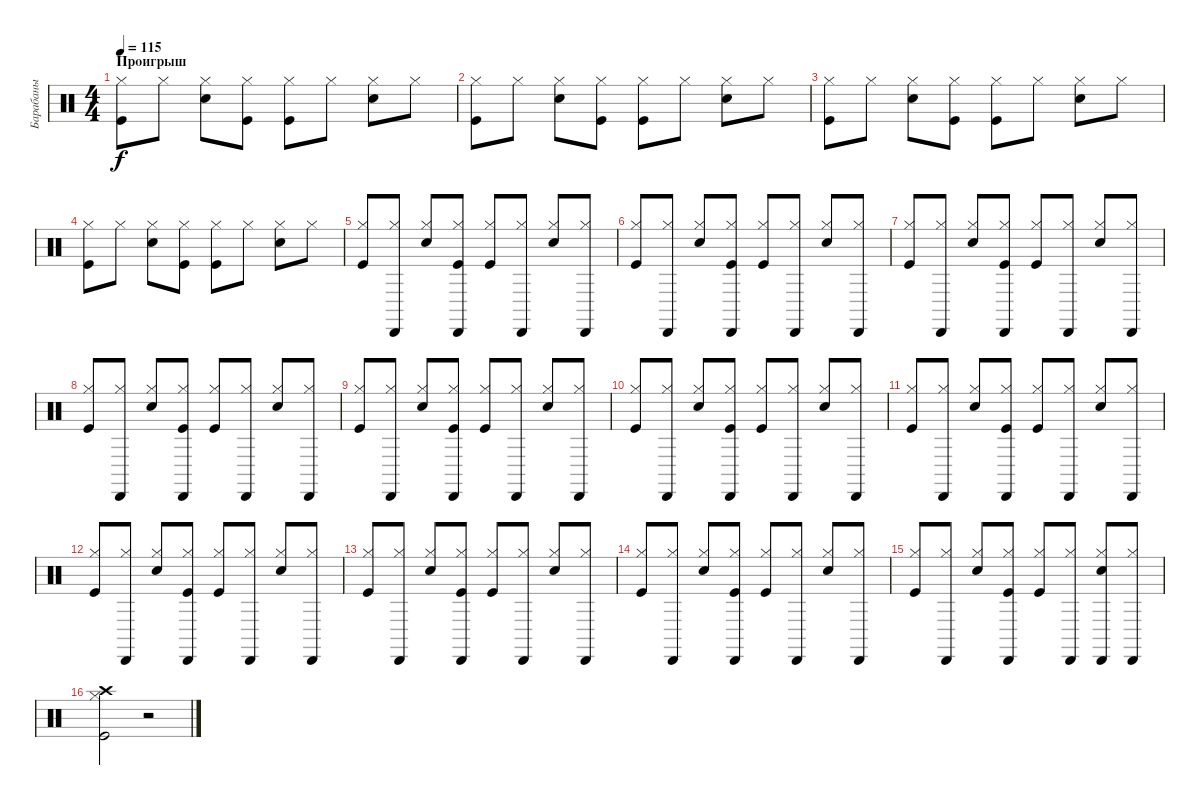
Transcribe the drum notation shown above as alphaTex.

\track ("Барабаны" "Барабаны") {instrument percussion}
\staff {score}
\articulation defaults
\ts (4 4)
\section ("" "Проигрыш")
\tempo 115
\clef neutral
\ks c
("Kick (hit)" "Hi-Hat (closed)").8{dy f} "Hi-Hat (closed)".8 ("Snare (hit) 2" "Hi-Hat (closed)").8 ("Kick (hit)" "Hi-Hat (closed)").8 ("Kick (hit)" "Hi-Hat (closed)").8 "Hi-Hat (closed)".8 ("Snare (hit) 2" "Hi-Hat (closed)").8 "Hi-Hat (closed)".8 |
("Kick (hit)" "Hi-Hat (closed)").8 "Hi-Hat (closed)".8 ("Snare (hit) 2" "Hi-Hat (closed)").8 ("Kick (hit)" "Hi-Hat (closed)").8 ("Kick (hit)" "Hi-Hat (closed)").8 "Hi-Hat (closed)".8 ("Snare (hit) 2" "Hi-Hat (closed)").8 "Hi-Hat (closed)".8 |
("Kick (hit)" "Hi-Hat (closed)").8 "Hi-Hat (closed)".8 ("Snare (hit) 2" "Hi-Hat (closed)").8 ("Kick (hit)" "Hi-Hat (closed)").8 ("Kick (hit)" "Hi-Hat (closed)").8 "Hi-Hat (closed)".8 ("Snare (hit) 2" "Hi-Hat (closed)").8 "Hi-Hat (closed)".8 |
("Kick (hit)" "Hi-Hat (closed)").8 "Hi-Hat (closed)".8 ("Snare (hit) 2" "Hi-Hat (closed)").8 ("Kick (hit)" "Hi-Hat (closed)").8 ("Kick (hit)" "Hi-Hat (closed)").8 "Hi-Hat (closed)".8 ("Snare (hit) 2" "Hi-Hat (closed)").8 "Hi-Hat (closed)".8 |
("Kick (hit)" "Hi-Hat (closed)").8 ("Hi-Hat (closed)" "Cabasa (hit)").8 ("Snare (hit) 2" "Hi-Hat (closed)").8 ("Kick (hit)" "Hi-Hat (closed)" "Cabasa (hit)").8 ("Kick (hit)" "Hi-Hat (closed)").8 ("Hi-Hat (closed)" "Cabasa (hit)").8 ("Snare (hit) 2" "Hi-Hat (closed)").8 ("Hi-Hat (closed)" "Cabasa (hit)").8 |
("Kick (hit)" "Hi-Hat (closed)").8 ("Hi-Hat (closed)" "Cabasa (hit)").8 ("Snare (hit) 2" "Hi-Hat (closed)").8 ("Kick (hit)" "Hi-Hat (closed)" "Cabasa (hit)").8 ("Kick (hit)" "Hi-Hat (closed)").8 ("Hi-Hat (closed)" "Cabasa (hit)").8 ("Snare (hit) 2" "Hi-Hat (closed)").8 ("Hi-Hat (closed)" "Cabasa (hit)").8 |
("Kick (hit)" "Hi-Hat (closed)").8 ("Hi-Hat (closed)" "Cabasa (hit)").8 ("Snare (hit) 2" "Hi-Hat (closed)").8 ("Kick (hit)" "Hi-Hat (closed)" "Cabasa (hit)").8 ("Kick (hit)" "Hi-Hat (closed)").8 ("Hi-Hat (closed)" "Cabasa (hit)").8 ("Snare (hit) 2" "Hi-Hat (closed)").8 ("Hi-Hat (closed)" "Cabasa (hit)").8 |
("Kick (hit)" "Hi-Hat (closed)").8 ("Hi-Hat (closed)" "Cabasa (hit)").8 ("Snare (hit) 2" "Hi-Hat (closed)").8 ("Kick (hit)" "Hi-Hat (closed)" "Cabasa (hit)").8 ("Kick (hit)" "Hi-Hat (closed)").8 ("Hi-Hat (closed)" "Cabasa (hit)").8 ("Snare (hit) 2" "Hi-Hat (closed)").8 ("Hi-Hat (closed)" "Cabasa (hit)").8 |
("Kick (hit)" "Hi-Hat (closed)").8 ("Hi-Hat (closed)" "Cabasa (hit)").8 ("Snare (hit) 2" "Hi-Hat (closed)").8 ("Kick (hit)" "Hi-Hat (closed)" "Cabasa (hit)").8 ("Kick (hit)" "Hi-Hat (closed)").8 ("Hi-Hat (closed)" "Cabasa (hit)").8 ("Snare (hit) 2" "Hi-Hat (closed)").8 ("Hi-Hat (closed)" "Cabasa (hit)").8 |
("Kick (hit)" "Hi-Hat (closed)").8 ("Hi-Hat (closed)" "Cabasa (hit)").8 ("Snare (hit) 2" "Hi-Hat (closed)").8 ("Kick (hit)" "Hi-Hat (closed)" "Cabasa (hit)").8 ("Kick (hit)" "Hi-Hat (closed)").8 ("Hi-Hat (closed)" "Cabasa (hit)").8 ("Snare (hit) 2" "Hi-Hat (closed)").8 ("Hi-Hat (closed)" "Cabasa (hit)").8 |
("Kick (hit)" "Hi-Hat (closed)").8 ("Hi-Hat (closed)" "Cabasa (hit)").8 ("Snare (hit) 2" "Hi-Hat (closed)").8 ("Kick (hit)" "Hi-Hat (closed)" "Cabasa (hit)").8 ("Kick (hit)" "Hi-Hat (closed)").8 ("Hi-Hat (closed)" "Cabasa (hit)").8 ("Snare (hit) 2" "Hi-Hat (closed)").8 ("Hi-Hat (closed)" "Cabasa (hit)").8 |
("Kick (hit)" "Hi-Hat (closed)").8 ("Hi-Hat (closed)" "Cabasa (hit)").8 ("Snare (hit) 2" "Hi-Hat (closed)").8 ("Kick (hit)" "Hi-Hat (closed)" "Cabasa (hit)").8 ("Kick (hit)" "Hi-Hat (closed)").8 ("Hi-Hat (closed)" "Cabasa (hit)").8 ("Snare (hit) 2" "Hi-Hat (closed)").8 ("Hi-Hat (closed)" "Cabasa (hit)").8 |
("Kick (hit)" "Hi-Hat (closed)").8 ("Hi-Hat (closed)" "Cabasa (hit)").8 ("Snare (hit) 2" "Hi-Hat (closed)").8 ("Kick (hit)" "Hi-Hat (closed)" "Cabasa (hit)").8 ("Kick (hit)" "Hi-Hat (closed)").8 ("Hi-Hat (closed)" "Cabasa (hit)").8 ("Snare (hit) 2" "Hi-Hat (closed)").8 ("Hi-Hat (closed)" "Cabasa (hit)").8 |
("Kick (hit)" "Hi-Hat (closed)").8 ("Hi-Hat (closed)" "Cabasa (hit)").8 ("Snare (hit) 2" "Hi-Hat (closed)").8 ("Kick (hit)" "Hi-Hat (closed)" "Cabasa (hit)").8 ("Kick (hit)" "Hi-Hat (closed)").8 ("Hi-Hat (closed)" "Cabasa (hit)").8 ("Snare (hit) 2" "Hi-Hat (closed)").8 ("Hi-Hat (closed)" "Cabasa (hit)").8 |
("Kick (hit)" "Hi-Hat (closed)").8 ("Hi-Hat (closed)" "Cabasa (hit)").8 ("Snare (hit) 2" "Hi-Hat (closed)").8 ("Kick (hit)" "Hi-Hat (closed)" "Cabasa (hit)").8 ("Kick (hit)" "Hi-Hat (closed)").8 ("Hi-Hat (closed)" "Cabasa (hit)").8 ("Snare (hit) 2" "Hi-Hat (closed)" "Cabasa (hit)").8 ("Hi-Hat (closed)" "Cabasa (hit)").8 |
("Kick (hit)" "Hi-Hat (closed)" "Crash high (hit)").2 r.2
